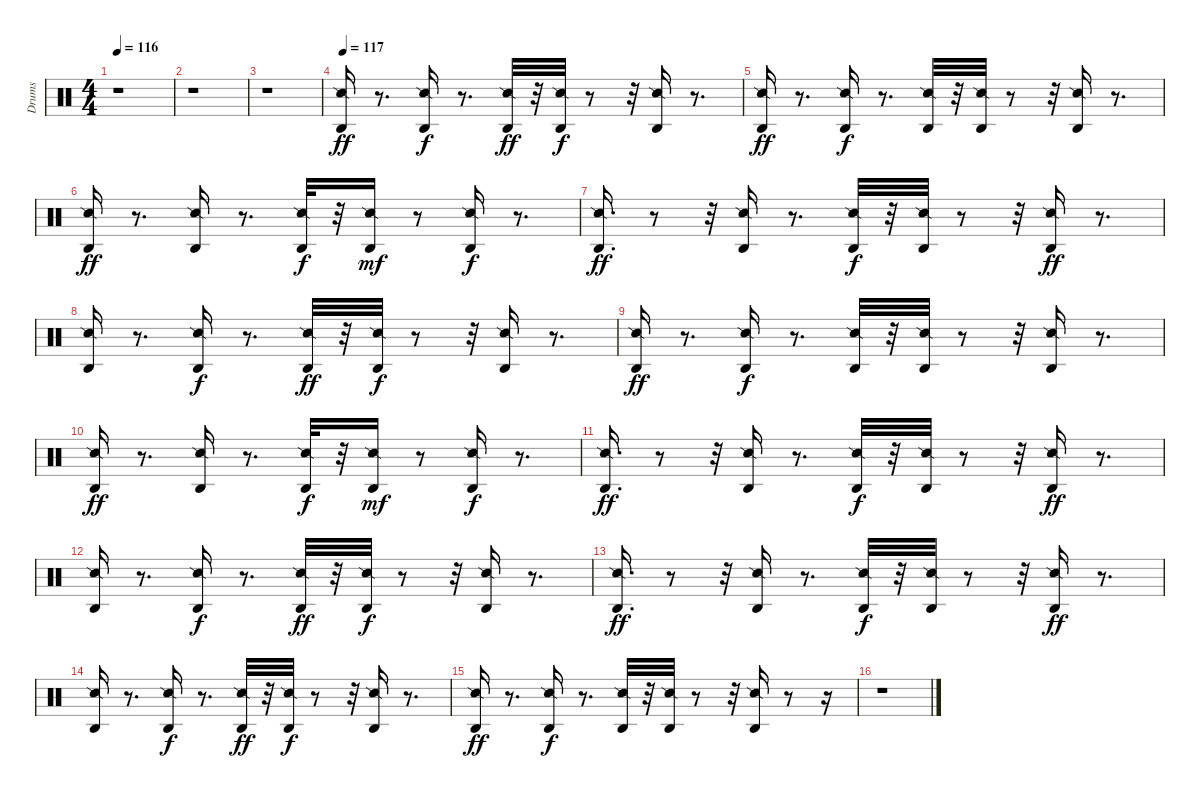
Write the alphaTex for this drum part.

\track ("Drums" "Drums") {instrument percussion}
\staff {score}
\articulation defaults
\ts (4 4)
\tempo 116
\clef neutral
\ks c
r.1{dy ff} |
r.1 |
r.1 |
\tempo 117
("Agogo high (hit)" "Snare (side stick) 2").16 r.8{d} ("Snare (side stick) 2" "Agogo high (hit)").16{dy f} r.8{d} ("Snare (side stick) 2" "Agogo high (hit)").32{dy ff} r.32 ("Agogo high (hit)" "Snare (side stick) 2").32{dy f} r.8 r.32 ("Snare (side stick) 2" "Agogo high (hit)").16 r.8{d} |
("Agogo high (hit)" "Snare (side stick) 2").16{dy ff} r.8{d} ("Snare (side stick) 2" "Agogo high (hit)").16{dy f} r.8{d} ("Snare (side stick) 2" "Agogo high (hit)").32 r.32 ("Agogo high (hit)" "Snare (side stick) 2").32 r.8 r.32 ("Snare (side stick) 2" "Agogo high (hit)").16 r.8{d} |
("Agogo high (hit)" "Snare (side stick) 2").16{dy ff} r.8{d} ("Snare (side stick) 2" "Agogo high (hit)").16 r.8{d} ("Snare (side stick) 2" "Agogo high (hit)").32{dy f} r.32 ("Agogo high (hit)" "Snare (side stick) 2").16{dy mf} r.8 ("Snare (side stick) 2" "Agogo high (hit)").16{dy f} r.8{d} |
("Agogo high (hit)" "Snare (side stick) 2").16{d dy ff} r.8 r.32 ("Snare (side stick) 2" "Agogo high (hit)").16 r.8{d} ("Agogo high (hit)" "Snare (side stick) 2").32{dy f} r.32 ("Snare (side stick) 2" "Agogo high (hit)").32 r.8 r.32 ("Agogo high (hit)" "Snare (side stick) 2").16{dy ff} r.8{d} |
("Snare (side stick) 2" "Agogo high (hit)").16 r.8{d} ("Agogo high (hit)" "Snare (side stick) 2").16{dy f} r.8{d} ("Snare (side stick) 2" "Agogo high (hit)").32{dy ff} r.32 ("Snare (side stick) 2" "Agogo high (hit)").32{dy f} r.8 r.32 ("Agogo high (hit)" "Snare (side stick) 2").16 r.8{d} |
("Snare (side stick) 2" "Agogo high (hit)").16{dy ff} r.8{d} ("Agogo high (hit)" "Snare (side stick) 2").16{dy f} r.8{d} ("Snare (side stick) 2" "Agogo high (hit)").32 r.32 ("Snare (side stick) 2" "Agogo high (hit)").32 r.8 r.32 ("Agogo high (hit)" "Snare (side stick) 2").16 r.8{d} |
("Snare (side stick) 2" "Agogo high (hit)").16{dy ff} r.8{d} ("Agogo high (hit)" "Snare (side stick) 2").16 r.8{d} ("Snare (side stick) 2" "Agogo high (hit)").32{dy f} r.32 ("Snare (side stick) 2" "Agogo high (hit)").16{dy mf} r.8 ("Agogo high (hit)" "Snare (side stick) 2").16{dy f} r.8{d} |
("Snare (side stick) 2" "Agogo high (hit)").16{d dy ff} r.8 r.32 ("Agogo high (hit)" "Snare (side stick) 2").16 r.8{d} ("Snare (side stick) 2" "Agogo high (hit)").32{dy f} r.32 ("Agogo high (hit)" "Snare (side stick) 2").32 r.8 r.32 ("Snare (side stick) 2" "Agogo high (hit)").16{dy ff} r.8{d} |
("Agogo high (hit)" "Snare (side stick) 2").16 r.8{d} ("Snare (side stick) 2" "Agogo high (hit)").16{dy f} r.8{d} ("Agogo high (hit)" "Snare (side stick) 2").32{dy ff} r.32 ("Snare (side stick) 2" "Agogo high (hit)").32{dy f} r.8 r.32 ("Snare (side stick) 2" "Agogo high (hit)").16 r.8{d} |
("Agogo high (hit)" "Snare (side stick) 2").16{d dy ff} r.8 r.32 ("Snare (side stick) 2" "Agogo high (hit)").16 r.8{d} ("Agogo high (hit)" "Snare (side stick) 2").32{dy f} r.32 ("Snare (side stick) 2" "Agogo high (hit)").32 r.8 r.32 ("Snare (side stick) 2" "Agogo high (hit)").16{dy ff} r.8{d} |
("Agogo high (hit)" "Snare (side stick) 2").16 r.8{d} ("Snare (side stick) 2" "Agogo high (hit)").16{dy f} r.8{d} ("Agogo high (hit)" "Snare (side stick) 2").32{dy ff} r.32 ("Snare (side stick) 2" "Agogo high (hit)").32{dy f} r.8 r.32 ("Snare (side stick) 2" "Agogo high (hit)").16 r.8{d} |
("Agogo high (hit)" "Snare (side stick) 2").16{dy ff} r.8{d} ("Snare (side stick) 2" "Agogo high (hit)").16{dy f} r.8{d} ("Agogo high (hit)" "Snare (side stick) 2").32 r.32 ("Snare (side stick) 2" "Agogo high (hit)").32 r.8 r.32 ("Agogo high (hit)" "Snare (side stick) 2").16 r.8 r.16 |
r.1
